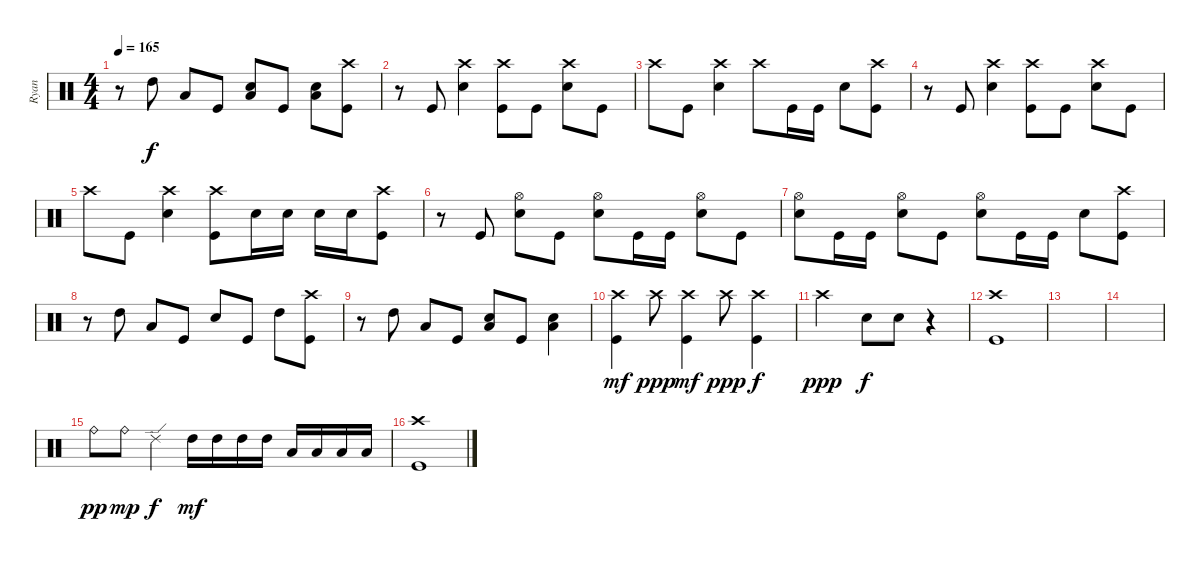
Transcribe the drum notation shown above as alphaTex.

\track ("Ryan" "Ryan") {instrument percussion}
\staff {score}
\articulation defaults
\ts (4 4)
\tempo 165
\clef neutral
\ks c
r.8{dy f} "High Tom (hit)".8 "Low Floor Tom (hit)".8 "Kick (hit)".8 ("Electric Snare (hit)" "Low Floor Tom (hit)").8 "Kick (hit)".8 ("Electric Snare (hit)" "Low Floor Tom (hit)").8 ("Crash high (hit)" "Kick (hit)").8 |
r.8 "Kick (hit)".8 ("Crash high (hit)" "Electric Snare (hit)").4 ("Crash high (hit)" "Kick (hit)").8 "Kick (hit)".8 ("Crash high (hit)" "Electric Snare (hit)").8 "Kick (hit)".8 |
"Crash high (hit)".8 "Kick (hit)".8 ("Crash high (hit)" "Electric Snare (hit)").4 "Crash high (hit)".8 "Kick (hit)".16 "Kick (hit)".16 "Electric Snare (hit)".8 ("Crash high (hit)" "Kick (hit)").8 |
r.8 "Kick (hit)".8 ("Crash high (hit)" "Electric Snare (hit)").4 ("Crash high (hit)" "Kick (hit)").8 "Kick (hit)".8 ("Crash high (hit)" "Electric Snare (hit)").8 "Kick (hit)".8 |
"Crash high (hit)".8 "Kick (hit)".8 ("Crash high (hit)" "Electric Snare (hit)").4 ("Crash high (hit)" "Kick (hit)").8 "Electric Snare (hit)".16 "Electric Snare (hit)".16 "Electric Snare (hit)".16 "Electric Snare (hit)".16 ("Crash high (hit)" "Kick (hit)").8 |
r.8 "Kick (hit)".8 ("Hi-Hat (open)" "Electric Snare (hit)").8 "Kick (hit)".8 ("Hi-Hat (open)" "Electric Snare (hit)").8 "Kick (hit)".16 "Kick (hit)".16 ("Hi-Hat (open)" "Electric Snare (hit)").8 "Kick (hit)".8 |
("Hi-Hat (open)" "Electric Snare (hit)").8 "Kick (hit)".16 "Kick (hit)".16 ("Hi-Hat (open)" "Electric Snare (hit)").8 "Kick (hit)".8 ("Hi-Hat (open)" "Electric Snare (hit)").8 "Kick (hit)".16 "Kick (hit)".16 "Electric Snare (hit)".8 ("Crash high (hit)" "Kick (hit)").8 |
r.8 "High Tom (hit)".8 "Low Floor Tom (hit)".8 "Kick (hit)".8 "Electric Snare (hit)".8 "Kick (hit)".8 "High Tom (hit)".8 ("Crash high (hit)" "Kick (hit)").8 |
r.8 "High Tom (hit)".8 "Low Floor Tom (hit)".8 "Kick (hit)".8 ("Electric Snare (hit)" "Low Floor Tom (hit)").8 "Kick (hit)".8 ("Electric Snare (hit)" "Low Floor Tom (hit)").4 |
("Crash high (hit)" "Kick (hit)").4{dy mf} "Crash high (hit)".8{dy ppp} ("Crash high (hit)" "Kick (hit)").4{dy mf} "Crash high (hit)".8{dy ppp} ("Crash high (hit)" "Kick (hit)").4{dy f} |
"Crash high (hit)".2{dy ppp} "Electric Snare (hit)".8{dy f} "Electric Snare (hit)".8 r.4 |
("Crash high (hit)" "Kick (hit)").1 |
|
|
"Ride (bell)".8{dy pp} "Ride (bell)".8{dy mp} "Ride (edge) 2".4{dy f} "High Tom (hit)".16{dy mf} "High Tom (hit)".16 "High Tom (hit)".16 "High Tom (hit)".16 "Low Floor Tom (hit)".16 "Low Floor Tom (hit)".16 "Low Floor Tom (hit)".16 "Low Floor Tom (hit)".16 |
("Crash high (hit)" "Kick (hit)").1
